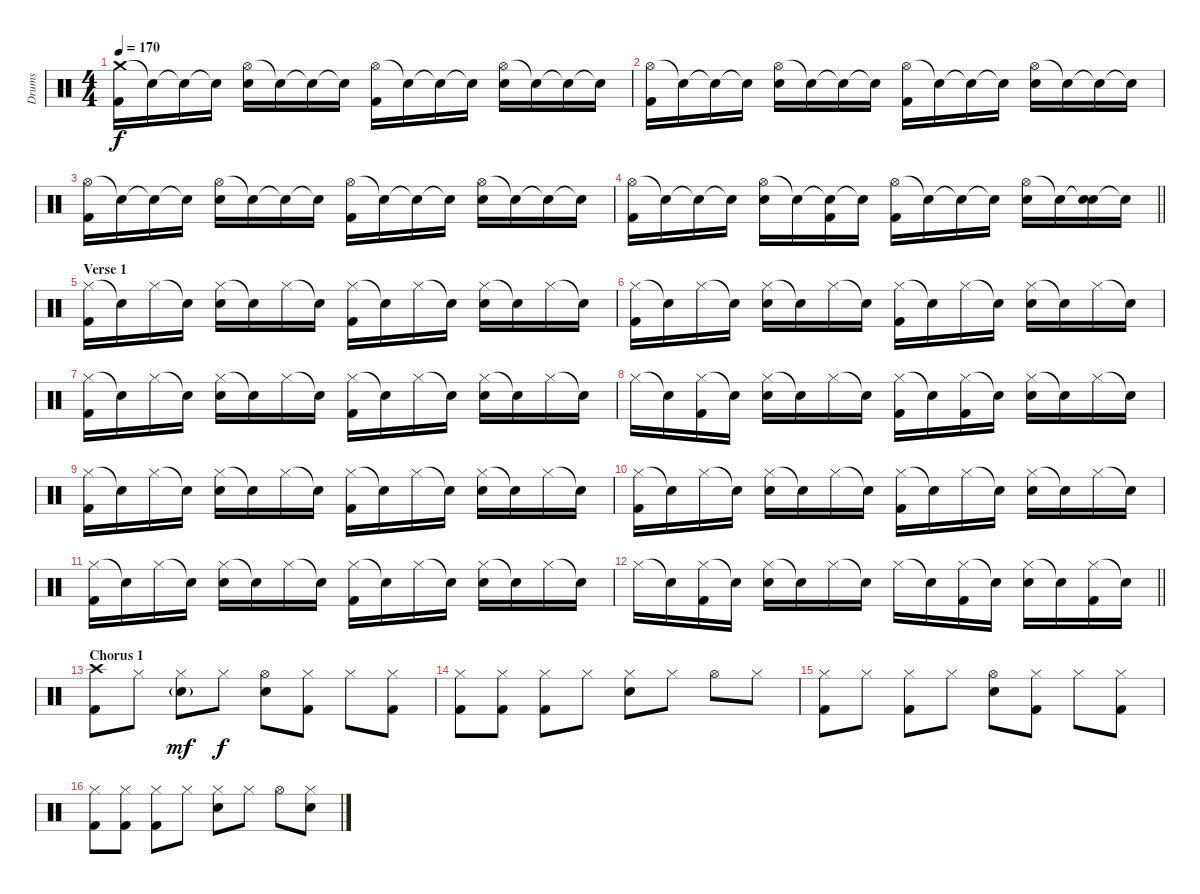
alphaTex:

\track ("Drums" "Drums") {instrument percussion}
\staff {score}
\articulation defaults
\ts (4 4)
\tempo 170
\clef neutral
\ks c
("Crash medium (hit)" "Kick (hit) 2").16{dy f} "Snare (hit)"{t}.16 "Snare (hit)"{t}.16 "Snare (hit)"{t}.16 ("Hi-Hat (open)" "Snare (hit) 2").16 "Snare (hit)"{t}.16 "Snare (hit)"{t}.16 "Snare (hit)"{t}.16 ("Hi-Hat (open)" "Kick (hit) 2").16 "Snare (hit)"{t}.16 "Snare (hit)"{t}.16 "Snare (hit)"{t}.16 ("Hi-Hat (open)" "Snare (hit) 2").16 "Snare (hit)"{t}.16 "Snare (hit)"{t}.16 "Snare (hit)"{t}.16 |
("Hi-Hat (open)" "Kick (hit) 2").16 "Snare (hit)"{t}.16 "Snare (hit)"{t}.16 "Snare (hit)"{t}.16 ("Hi-Hat (open)" "Snare (hit) 2").16 "Snare (hit)"{t}.16 "Snare (hit)"{t}.16 "Snare (hit)"{t}.16 ("Hi-Hat (open)" "Kick (hit) 2").16 "Snare (hit)"{t}.16 "Snare (hit)"{t}.16 "Snare (hit)"{t}.16 ("Hi-Hat (open)" "Snare (hit) 2").16 "Snare (hit)"{t}.16 "Snare (hit)"{t}.16 "Snare (hit)"{t}.16 |
("Hi-Hat (open)" "Kick (hit) 2").16 "Snare (hit)"{t}.16 "Snare (hit)"{t}.16 "Snare (hit)"{t}.16 ("Hi-Hat (open)" "Snare (hit) 2").16 "Snare (hit)"{t}.16 "Snare (hit)"{t}.16 "Snare (hit)"{t}.16 ("Hi-Hat (open)" "Kick (hit) 2").16 "Snare (hit)"{t}.16 "Snare (hit)"{t}.16 "Snare (hit)"{t}.16 ("Hi-Hat (open)" "Snare (hit) 2").16 "Snare (hit)"{t}.16 "Snare (hit)"{t}.16 "Snare (hit)"{t}.16 |
\barLineRight lightlight
("Hi-Hat (open)" "Kick (hit) 2").16 "Snare (hit)"{t}.16 "Snare (hit)"{t}.16 "Snare (hit)"{t}.16 ("Hi-Hat (open)" "Snare (hit) 2").16 "Snare (hit)"{t}.16 ("Snare (hit)"{t} "Kick (hit) 2").16 "Snare (hit)"{t}.16 ("Hi-Hat (open)" "Kick (hit) 2").16 "Snare (hit)"{t}.16 "Snare (hit)"{t}.16 "Snare (hit)"{t}.16 ("Hi-Hat (open)" "Snare (hit) 2").16 "Snare (hit)"{t}.16 ("Snare (hit)"{t} "Snare (hit) 2").16 "Snare (hit)"{t}.16 |
\section ("" "Verse 1")
("Hi-Hat (closed)" "Kick (hit) 2").16 "Snare (hit)"{t}.16 "Hi-Hat (closed)".16 "Snare (hit)"{t}.16 ("Hi-Hat (closed)" "Snare (hit) 2").16 "Snare (hit)"{t}.16 "Hi-Hat (closed)".16 "Snare (hit)"{t}.16 ("Hi-Hat (closed)" "Kick (hit) 2").16 "Snare (hit)"{t}.16 "Hi-Hat (closed)".16 "Snare (hit)"{t}.16 ("Hi-Hat (closed)" "Snare (hit) 2").16 "Snare (hit)"{t}.16 "Hi-Hat (closed)".16 "Snare (hit)"{t}.16 |
("Hi-Hat (closed)" "Kick (hit) 2").16 "Snare (hit)"{t}.16 "Hi-Hat (closed)".16 "Snare (hit)"{t}.16 ("Hi-Hat (closed)" "Snare (hit) 2").16 "Snare (hit)"{t}.16 "Hi-Hat (closed)".16 "Snare (hit)"{t}.16 ("Hi-Hat (closed)" "Kick (hit) 2").16 "Snare (hit)"{t}.16 "Hi-Hat (closed)".16 "Snare (hit)"{t}.16 ("Hi-Hat (closed)" "Snare (hit) 2").16 "Snare (hit)"{t}.16 "Hi-Hat (closed)".16 "Snare (hit)"{t}.16 |
("Hi-Hat (closed)" "Kick (hit) 2").16 "Snare (hit)"{t}.16 "Hi-Hat (closed)".16 "Snare (hit)"{t}.16 ("Hi-Hat (closed)" "Snare (hit) 2").16 "Snare (hit)"{t}.16 "Hi-Hat (closed)".16 "Snare (hit)"{t}.16 ("Hi-Hat (closed)" "Kick (hit) 2").16 "Snare (hit)"{t}.16 "Hi-Hat (closed)".16 "Snare (hit)"{t}.16 ("Hi-Hat (closed)" "Snare (hit) 2").16 "Snare (hit)"{t}.16 "Hi-Hat (closed)".16 "Snare (hit)"{t}.16 |
"Hi-Hat (closed)".16 "Snare (hit)"{t}.16 ("Hi-Hat (closed)" "Kick (hit) 2").16 "Snare (hit)"{t}.16 ("Hi-Hat (closed)" "Snare (hit) 2").16 "Snare (hit)"{t}.16 "Hi-Hat (closed)".16 "Snare (hit)"{t}.16 ("Hi-Hat (closed)" "Kick (hit) 2").16 "Snare (hit)"{t}.16 ("Hi-Hat (closed)" "Kick (hit) 2").16 "Snare (hit)"{t}.16 ("Hi-Hat (closed)" "Snare (hit) 2").16 "Snare (hit)"{t}.16 "Hi-Hat (closed)".16 "Snare (hit)"{t}.16 |
("Hi-Hat (closed)" "Kick (hit) 2").16 "Snare (hit)"{t}.16 "Hi-Hat (closed)".16 "Snare (hit)"{t}.16 ("Hi-Hat (closed)" "Snare (hit) 2").16 "Snare (hit)"{t}.16 "Hi-Hat (closed)".16 "Snare (hit)"{t}.16 ("Hi-Hat (closed)" "Kick (hit) 2").16 "Snare (hit)"{t}.16 "Hi-Hat (closed)".16 "Snare (hit)"{t}.16 ("Hi-Hat (closed)" "Snare (hit) 2").16 "Snare (hit)"{t}.16 "Hi-Hat (closed)".16 "Snare (hit)"{t}.16 |
("Hi-Hat (closed)" "Kick (hit) 2").16 "Snare (hit)"{t}.16 "Hi-Hat (closed)".16 "Snare (hit)"{t}.16 ("Hi-Hat (closed)" "Snare (hit) 2").16 "Snare (hit)"{t}.16 "Hi-Hat (closed)".16 "Snare (hit)"{t}.16 ("Hi-Hat (closed)" "Kick (hit) 2").16 "Snare (hit)"{t}.16 "Hi-Hat (closed)".16 "Snare (hit)"{t}.16 ("Hi-Hat (closed)" "Snare (hit) 2").16 "Snare (hit)"{t}.16 "Hi-Hat (closed)".16 "Snare (hit)"{t}.16 |
("Hi-Hat (closed)" "Kick (hit) 2").16 "Snare (hit)"{t}.16 "Hi-Hat (closed)".16 "Snare (hit)"{t}.16 ("Hi-Hat (closed)" "Snare (hit) 2").16 "Snare (hit)"{t}.16 "Hi-Hat (closed)".16 "Snare (hit)"{t}.16 ("Hi-Hat (closed)" "Kick (hit) 2").16 "Snare (hit)"{t}.16 "Hi-Hat (closed)".16 "Snare (hit)"{t}.16 ("Hi-Hat (closed)" "Snare (hit) 2").16 "Snare (hit)"{t}.16 "Hi-Hat (closed)".16 "Snare (hit)"{t}.16 |
\barLineRight lightlight "Hi-Hat (closed)".16 "Snare (hit)"{t}.16
("Hi-Hat (closed)" "Kick (hit) 2").16 "Snare (hit)"{t}.16 ("Hi-Hat (closed)" "Snare (hit) 2").16 "Snare (hit)"{t}.16 "Hi-Hat (closed)".16 "Snare (hit)"{t}.16 "Hi-Hat (closed)".16 "Snare (hit)"{t}.16 ("Hi-Hat (closed)" "Kick (hit) 2").16 "Snare (hit)"{t}.16 ("Hi-Hat (closed)" "Snare (hit) 2").16 "Snare (hit)"{t}.16 ("Hi-Hat (closed)" "Kick (hit) 2").16 "Snare (hit)"{t}.16 |
\section ("" "Chorus 1")
("Crash high (hit)" "Kick (hit) 2").8 "Hi-Hat (closed)".8 ("Hi-Hat (closed)" "Snare (hit) 2"{g}).8{dy mf} "Hi-Hat (closed)".8{dy f} ("Hi-Hat (open)" "Snare (hit) 2").8 ("Hi-Hat (closed)" "Kick (hit) 2").8 "Hi-Hat (closed)".8 ("Hi-Hat (closed)" "Kick (hit) 2").8 |
("Hi-Hat (closed)" "Kick (hit) 2").8 ("Hi-Hat (closed)" "Kick (hit) 2").8 ("Hi-Hat (closed)" "Kick (hit) 2").8 "Hi-Hat (closed)".8 ("Hi-Hat (closed)" "Snare (hit) 2").8 "Hi-Hat (closed)".8 "Hi-Hat (open)".8 "Hi-Hat (closed)".8 |
("Hi-Hat (closed)" "Kick (hit) 2").8 "Hi-Hat (closed)".8 ("Hi-Hat (closed)" "Kick (hit) 2").8 "Hi-Hat (closed)".8 ("Hi-Hat (open)" "Snare (hit) 2").8 ("Hi-Hat (closed)" "Kick (hit) 2").8 "Hi-Hat (closed)".8 ("Hi-Hat (closed)" "Kick (hit) 2").8 |
("Hi-Hat (closed)" "Kick (hit) 2").8 ("Hi-Hat (closed)" "Kick (hit) 2").8 ("Hi-Hat (closed)" "Kick (hit) 2").8 "Hi-Hat (closed)".8 ("Hi-Hat (closed)" "Snare (hit) 2").8 "Hi-Hat (closed)".8 "Hi-Hat (open)".8 ("Hi-Hat (closed)" "Snare (hit) 2").8
